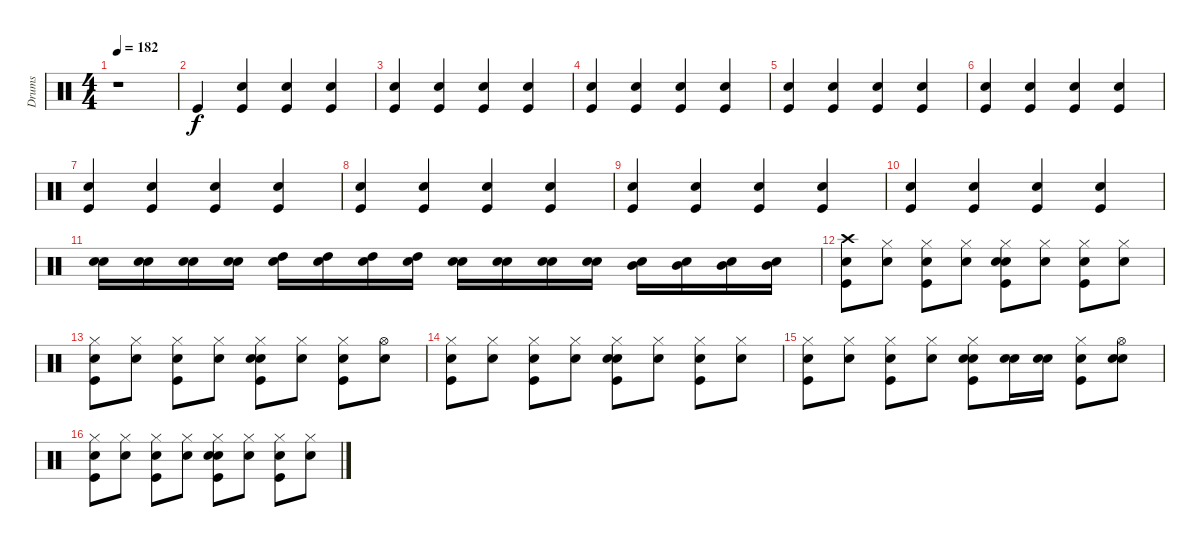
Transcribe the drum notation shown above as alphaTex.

\track ("Drums" "Drums") {instrument percussion}
\staff {score}
\articulation defaults
\ts (4 4)
\tempo 182
\clef neutral
\ks c
r.1{dy f} |
"Kick (hit)".4 ("Snare (hit)" "Kick (hit)").4 ("Snare (hit)" "Kick (hit)").4 ("Snare (hit)" "Kick (hit)").4 |
("Snare (hit)" "Kick (hit)").4 ("Snare (hit)" "Kick (hit)").4 ("Snare (hit)" "Kick (hit)").4 ("Snare (hit)" "Kick (hit)").4 |
("Snare (hit)" "Kick (hit)").4 ("Snare (hit)" "Kick (hit)").4 ("Snare (hit)" "Kick (hit)").4 ("Snare (hit)" "Kick (hit)").4 |
("Snare (hit)" "Kick (hit)").4 ("Snare (hit)" "Kick (hit)").4 ("Snare (hit)" "Kick (hit)").4 ("Snare (hit)" "Kick (hit)").4 |
("Snare (hit)" "Kick (hit)").4 ("Snare (hit)" "Kick (hit)").4 ("Snare (hit)" "Kick (hit)").4 ("Snare (hit)" "Kick (hit)").4 |
("Snare (hit)" "Kick (hit)").4 ("Snare (hit)" "Kick (hit)").4 ("Snare (hit)" "Kick (hit)").4 ("Snare (hit)" "Kick (hit)").4 |
("Snare (hit)" "Kick (hit)").4 ("Snare (hit)" "Kick (hit)").4 ("Snare (hit)" "Kick (hit)").4 ("Snare (hit)" "Kick (hit)").4 |
("Snare (hit)" "Kick (hit)").4 ("Snare (hit)" "Kick (hit)").4 ("Snare (hit)" "Kick (hit)").4 ("Snare (hit)" "Kick (hit)").4 |
("Snare (hit)" "Kick (hit)").4 ("Snare (hit)" "Kick (hit)").4 ("Snare (hit)" "Kick (hit)").4 ("Snare (hit)" "Kick (hit)").4 |
("Snare (hit)" "Electric Snare (hit)").16 ("Snare (hit)" "Electric Snare (hit)").16 ("Snare (hit)" "Electric Snare (hit)").16 ("Snare (hit)" "Electric Snare (hit)").16 ("Snare (hit)" "High Tom (hit)").16 ("Snare (hit)" "High Tom (hit)").16 ("Snare (hit)" "High Tom (hit)").16 ("Snare (hit)" "High Tom (hit)").16 ("Snare (hit)" "Electric Snare (hit)").16 ("Snare (hit)" "Electric Snare (hit)").16 ("Snare (hit)" "Electric Snare (hit)").16 ("Snare (hit)" "Electric Snare (hit)").16 ("Snare (hit)" "Mid Tom (hit)").16 ("Snare (hit)" "Mid Tom (hit)").16 ("Snare (hit)" "Mid Tom (hit)").16 ("Snare (hit)" "Mid Tom (hit)").16 |
("Snare (hit)" "Kick (hit)" "Crash high (hit)").8 ("Snare (hit)" "Hi-Hat (closed)").8 ("Snare (hit)" "Kick (hit)" "Hi-Hat (closed)").8 ("Snare (hit)" "Hi-Hat (closed)").8 ("Snare (hit)" "Kick (hit)" "Electric Snare (hit)" "Hi-Hat (closed)").8 ("Snare (hit)" "Hi-Hat (closed)").8 ("Snare (hit)" "Kick (hit)" "Hi-Hat (closed)").8 ("Snare (hit)" "Hi-Hat (closed)").8 |
("Snare (hit)" "Kick (hit)" "Hi-Hat (closed)").8 ("Snare (hit)" "Hi-Hat (closed)").8 ("Snare (hit)" "Kick (hit)" "Hi-Hat (closed)").8 ("Snare (hit)" "Hi-Hat (closed)").8 ("Snare (hit)" "Kick (hit)" "Electric Snare (hit)" "Hi-Hat (closed)").8 ("Snare (hit)" "Hi-Hat (closed)").8 ("Snare (hit)" "Kick (hit)" "Hi-Hat (closed)").8 ("Snare (hit)" "Hi-Hat (open)").8 |
("Snare (hit)" "Kick (hit)" "Hi-Hat (closed)").8 ("Snare (hit)" "Hi-Hat (closed)").8 ("Snare (hit)" "Kick (hit)" "Hi-Hat (closed)").8 ("Snare (hit)" "Hi-Hat (closed)").8 ("Snare (hit)" "Kick (hit)" "Electric Snare (hit)" "Hi-Hat (closed)").8 ("Snare (hit)" "Hi-Hat (closed)").8 ("Snare (hit)" "Kick (hit)" "Hi-Hat (closed)").8 ("Snare (hit)" "Hi-Hat (closed)").8 |
("Snare (hit)" "Kick (hit)" "Hi-Hat (closed)").8 ("Snare (hit)" "Hi-Hat (closed)").8 ("Snare (hit)" "Kick (hit)" "Hi-Hat (closed)").8 ("Snare (hit)" "Hi-Hat (closed)").8 ("Snare (hit)" "Kick (hit)" "Electric Snare (hit)" "Hi-Hat (closed)").8 ("Snare (hit)" "Electric Snare (hit)").16 ("Snare (hit)" "Electric Snare (hit)").16 ("Snare (hit)" "Kick (hit)" "Hi-Hat (closed)").8 ("Snare (hit)" "Electric Snare (hit)" "Hi-Hat (open)").8 |
("Snare (hit)" "Kick (hit)" "Hi-Hat (closed)").8 ("Snare (hit)" "Hi-Hat (closed)").8 ("Snare (hit)" "Kick (hit)" "Hi-Hat (closed)").8 ("Snare (hit)" "Hi-Hat (closed)").8 ("Snare (hit)" "Kick (hit)" "Electric Snare (hit)" "Hi-Hat (closed)").8 ("Snare (hit)" "Hi-Hat (closed)").8 ("Snare (hit)" "Kick (hit)" "Hi-Hat (closed)").8 ("Snare (hit)" "Hi-Hat (closed)").8
